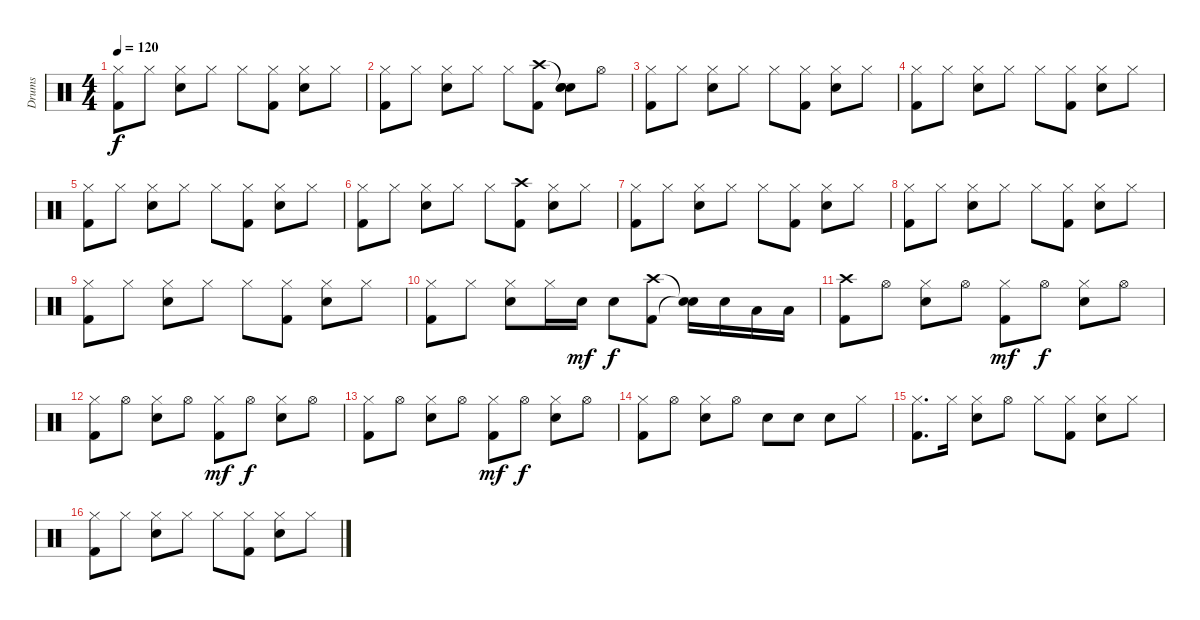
\track ("Drums" "Drums") {instrument percussion}
\staff {score}
\articulation defaults
\ts (4 4)
\tempo 120
\clef neutral
\ks c
("Hi-Hat (closed)" "Kick (hit) 2").8{dy f} "Hi-Hat (closed)".8 ("Hi-Hat (closed)" "Snare (hit) 2").8 "Hi-Hat (closed)".8 "Hi-Hat (closed)".8 ("Hi-Hat (closed)" "Kick (hit) 2").8 ("Hi-Hat (closed)" "Snare (hit) 2").8 "Hi-Hat (closed)".8 |
("Hi-Hat (closed)" "Kick (hit) 2").8 "Hi-Hat (closed)".8 ("Hi-Hat (closed)" "Snare (hit) 2").8 "Hi-Hat (closed)".8 "Hi-Hat (closed)".8 ("Crash high (hit)" "Kick (hit) 2").8 ("Snare (hit)"{t} "Snare (hit) 2" "Snare (hit)").8 "Hi-Hat (open)".8 |
("Hi-Hat (closed)" "Kick (hit) 2").8 "Hi-Hat (closed)".8 ("Hi-Hat (closed)" "Snare (hit) 2").8 "Hi-Hat (closed)".8 "Hi-Hat (closed)".8 ("Hi-Hat (closed)" "Kick (hit) 2").8 ("Hi-Hat (closed)" "Snare (hit) 2").8 "Hi-Hat (closed)".8 |
("Hi-Hat (closed)" "Kick (hit) 2").8 "Hi-Hat (closed)".8 ("Hi-Hat (closed)" "Snare (hit) 2").8 "Hi-Hat (closed)".8 "Hi-Hat (closed)".8 ("Hi-Hat (closed)" "Kick (hit) 2").8 ("Hi-Hat (closed)" "Snare (hit) 2").8 "Hi-Hat (closed)".8 |
("Hi-Hat (closed)" "Kick (hit) 2").8 "Hi-Hat (closed)".8 ("Hi-Hat (closed)" "Snare (hit) 2").8 "Hi-Hat (closed)".8 "Hi-Hat (closed)".8 ("Hi-Hat (closed)" "Kick (hit) 2").8 ("Hi-Hat (closed)" "Snare (hit) 2").8 "Hi-Hat (closed)".8 |
("Hi-Hat (closed)" "Kick (hit) 2").8 "Hi-Hat (closed)".8 ("Hi-Hat (closed)" "Snare (hit) 2").8 "Hi-Hat (closed)".8 "Hi-Hat (closed)".8 ("Crash high (hit)" "Kick (hit) 2").8 ("Hi-Hat (closed)" "Snare (hit) 2").8 "Hi-Hat (closed)".8 |
("Hi-Hat (closed)" "Kick (hit) 2").8 "Hi-Hat (closed)".8 ("Hi-Hat (closed)" "Snare (hit) 2").8 "Hi-Hat (closed)".8 "Hi-Hat (closed)".8 ("Hi-Hat (closed)" "Kick (hit) 2").8 ("Hi-Hat (closed)" "Snare (hit) 2").8 "Hi-Hat (closed)".8 |
("Hi-Hat (closed)" "Kick (hit) 2").8 "Hi-Hat (closed)".8 ("Hi-Hat (closed)" "Snare (hit) 2").8 "Hi-Hat (closed)".8 "Hi-Hat (closed)".8 ("Hi-Hat (closed)" "Kick (hit) 2").8 ("Hi-Hat (closed)" "Snare (hit) 2").8 "Hi-Hat (closed)".8 |
("Hi-Hat (closed)" "Kick (hit) 2").8 "Hi-Hat (closed)".8 ("Hi-Hat (closed)" "Snare (hit) 2").8 "Hi-Hat (closed)".8 "Hi-Hat (closed)".8 ("Hi-Hat (closed)" "Kick (hit) 2").8 ("Hi-Hat (closed)" "Snare (hit) 2").8 "Hi-Hat (closed)".8 |
("Hi-Hat (closed)" "Kick (hit) 2").8 "Hi-Hat (closed)".8 ("Hi-Hat (closed)" "Snare (hit) 2").8 "Hi-Hat (closed)".16 "Snare (hit) 2".16{dy mf} "Snare (hit) 2".8{dy f} ("Crash high (hit)" "Kick (hit) 2").8 ("Snare (hit)"{t} "Snare (hit)"{t}).16 "Snare (hit) 2".16 "Low Tom (hit)".16 "Low Tom (hit)".16 |
("Crash high (hit)" "Kick (hit) 2").8 "Hi-Hat (open)".8 ("Hi-Hat (closed)" "Snare (hit) 2").8 "Hi-Hat (open)".8 ("Hi-Hat (closed)" "Kick (hit) 2").8{dy mf} "Hi-Hat (open)".8{dy f} ("Hi-Hat (closed)" "Snare (hit) 2").8 "Hi-Hat (open)".8 |
("Hi-Hat (closed)" "Kick (hit) 2").8 "Hi-Hat (open)".8 ("Hi-Hat (closed)" "Snare (hit) 2").8 "Hi-Hat (open)".8 ("Hi-Hat (closed)" "Kick (hit) 2").8{dy mf} "Hi-Hat (open)".8{dy f} ("Hi-Hat (closed)" "Snare (hit) 2").8 "Hi-Hat (open)".8 |
("Hi-Hat (closed)" "Kick (hit) 2").8 "Hi-Hat (open)".8 ("Hi-Hat (closed)" "Snare (hit) 2").8 "Hi-Hat (open)".8 ("Hi-Hat (closed)" "Kick (hit) 2").8{dy mf} "Hi-Hat (open)".8{dy f} ("Hi-Hat (closed)" "Snare (hit) 2").8 "Hi-Hat (open)".8 |
("Hi-Hat (closed)" "Kick (hit) 2").8 "Hi-Hat (open)".8 ("Hi-Hat (closed)" "Snare (hit) 2").8 "Hi-Hat (open)".8 "Snare (hit) 2".8 "Snare (hit) 2".8 "Snare (hit) 2".8 "Hi-Hat (closed)".8 |
("Hi-Hat (closed)" "Kick (hit) 2").8{d} "Hi-Hat (closed)".16 ("Hi-Hat (closed)" "Snare (hit) 2").8 "Hi-Hat (open)".8 "Hi-Hat (closed)".8 ("Hi-Hat (closed)" "Kick (hit) 2").8 ("Hi-Hat (closed)" "Snare (hit) 2").8 "Hi-Hat (closed)".8 |
("Hi-Hat (closed)" "Kick (hit) 2").8 "Hi-Hat (closed)".8 ("Hi-Hat (closed)" "Snare (hit) 2").8 "Hi-Hat (closed)".8 "Hi-Hat (closed)".8 ("Hi-Hat (closed)" "Kick (hit) 2").8 ("Hi-Hat (closed)" "Snare (hit) 2").8 "Hi-Hat (closed)".8
